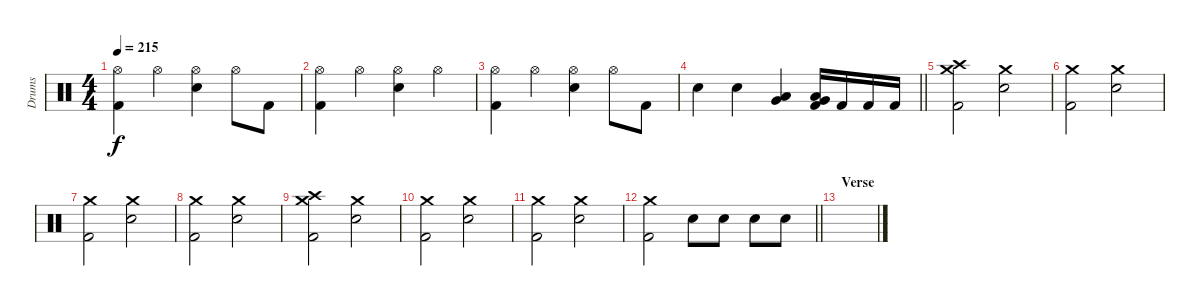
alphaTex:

\track ("Drums" "Drums") {instrument percussion}
\staff {score}
\articulation defaults
\ts (4 4)
\tempo 215
\clef neutral
\ks c
("Hi-Hat (open)" "Kick (hit) 2").4{dy f} "Hi-Hat (open)".4 ("Hi-Hat (open)" "Electric Snare (hit)").4 "Hi-Hat (open)".8 "Kick (hit) 2".8 |
("Hi-Hat (open)" "Kick (hit) 2").4 "Hi-Hat (open)".4 ("Hi-Hat (open)" "Electric Snare (hit)").4 "Hi-Hat (open)".4 |
("Hi-Hat (open)" "Kick (hit) 2").4 "Hi-Hat (open)".4 ("Hi-Hat (open)" "Electric Snare (hit)").4 "Hi-Hat (open)".8 "Kick (hit) 2".8 |
\barLineRight lightlight "Electric Snare (hit)".4 "Electric Snare (hit)".4
("Low Tom (hit)" "Very Low Tom (hit)").4 ("Low Tom (hit)" "Very Low Tom (hit)" "Kick (hit) 2").16 "Kick (hit) 2".16 "Kick (hit) 2".16 "Kick (hit) 2".16 |
\section ("" "")
("Crash medium (hit)" "Crash high (hit)" "Kick (hit) 2").2 ("Crash medium (hit)" "Electric Snare (hit)").2 |
("Crash medium (hit)" "Kick (hit) 2").2 ("Crash medium (hit)" "Electric Snare (hit)").2 |
("Crash medium (hit)" "Kick (hit) 2").2 ("Crash medium (hit)" "Electric Snare (hit)").2 |
("Crash medium (hit)" "Kick (hit) 2").2 ("Crash medium (hit)" "Electric Snare (hit)").2 |
("Crash medium (hit)" "Crash high (hit)" "Kick (hit) 2").2 ("Crash medium (hit)" "Electric Snare (hit)").2 |
("Crash medium (hit)" "Kick (hit) 2").2 ("Crash medium (hit)" "Electric Snare (hit)").2 |
("Crash medium (hit)" "Kick (hit) 2").2 ("Crash medium (hit)" "Electric Snare (hit)").2 |
\barLineRight lightlight
("Crash medium (hit)" "Kick (hit) 2").2 "Electric Snare (hit)".8 "Electric Snare (hit)".8 "Electric Snare (hit)".8 "Electric Snare (hit)".8 |
\section ("" "Verse")
